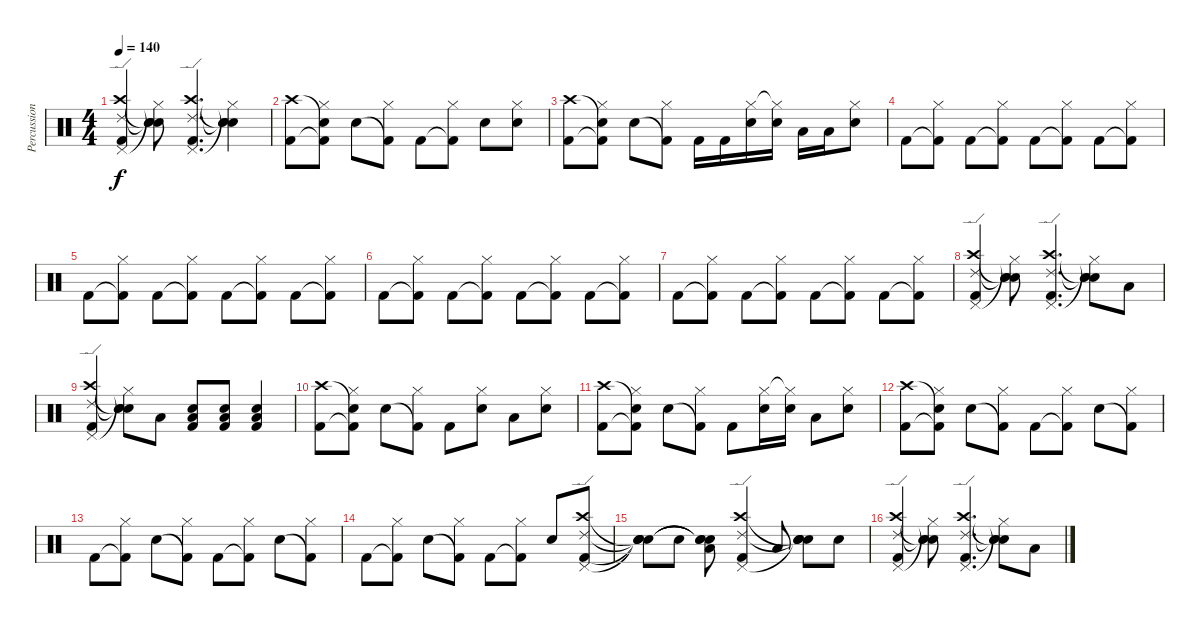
\track ("Percussion" "Percussion") {instrument percussion}
\staff {score}
\articulation defaults
\ts (4 4)
\tempo 140
\clef neutral
\ks c
("Kick (hit) 2" "Crash high (hit)" "Ride (edge) 2" "Pedal Hi-Hat (hit)").4{dy f} ("Snare (hit) 2" "Snare (hit)"{t} "Snare (hit)"{t} "Hi-Hat (closed)"{t}).8 ("Kick (hit) 2" "Crash high (hit)" "Ride (edge) 2" "Pedal Hi-Hat (hit)").4{d} ("Snare (hit) 2" "Snare (hit)"{t} "Snare (hit)"{t} "Hi-Hat (closed)"{t}).4 |
("Kick (hit) 2" "Crash high (hit)").8 ("Kick (hit) 2"{t} "Snare (hit)"{t} "Hi-Hat (closed)").8 "Snare (hit) 2".8 ("Kick (hit) 2"{t} "Hi-Hat (closed)").8 "Kick (hit) 2".8 ("Kick (hit) 2"{t} "Hi-Hat (closed)").8 "Snare (hit) 2".8 ("Snare (hit) 2" "Hi-Hat (closed)").8 |
("Kick (hit) 2" "Crash high (hit)").8 ("Kick (hit) 2"{t} "Snare (hit)"{t} "Hi-Hat (closed)").8 "Snare (hit) 2".8 ("Kick (hit) 2"{t} "Hi-Hat (closed)").8 "Kick (hit) 2".16 "Kick (hit) 2".16 ("Snare (hit) 2" "Hi-Hat (closed)").16 ("Snare (hit) 2" "Hi-Hat (closed)"{t}).16 "Low Tom (hit)".16 "Low Tom (hit)".16 ("Snare (hit) 2" "Hi-Hat (closed)").8 |
"Kick (hit) 2".8 ("Kick (hit) 2"{t} "Hi-Hat (closed)").8 "Kick (hit) 2".8 ("Kick (hit) 2"{t} "Hi-Hat (closed)").8 "Kick (hit) 2".8 ("Kick (hit) 2"{t} "Hi-Hat (closed)").8 "Kick (hit) 2".8 ("Kick (hit) 2"{t} "Hi-Hat (closed)").8 |
"Kick (hit) 2".8 ("Kick (hit) 2"{t} "Hi-Hat (closed)").8 "Kick (hit) 2".8 ("Kick (hit) 2"{t} "Hi-Hat (closed)").8 "Kick (hit) 2".8 ("Kick (hit) 2"{t} "Hi-Hat (closed)").8 "Kick (hit) 2".8 ("Kick (hit) 2"{t} "Hi-Hat (closed)").8 |
"Kick (hit) 2".8 ("Kick (hit) 2"{t} "Hi-Hat (closed)").8 "Kick (hit) 2".8 ("Kick (hit) 2"{t} "Hi-Hat (closed)").8 "Kick (hit) 2".8 ("Kick (hit) 2"{t} "Hi-Hat (closed)").8 "Kick (hit) 2".8 ("Kick (hit) 2"{t} "Hi-Hat (closed)").8 |
"Kick (hit) 2".8 ("Kick (hit) 2"{t} "Hi-Hat (closed)").8 "Kick (hit) 2".8 ("Kick (hit) 2"{t} "Hi-Hat (closed)").8 "Kick (hit) 2".8 ("Kick (hit) 2"{t} "Hi-Hat (closed)").8 "Kick (hit) 2".8 ("Kick (hit) 2"{t} "Hi-Hat (closed)").8 |
("Kick (hit) 2" "Crash high (hit)" "Ride (edge) 2" "Pedal Hi-Hat (hit)").4 ("Snare (hit) 2" "Snare (hit)"{t} "Snare (hit)"{t} "Hi-Hat (closed)"{t}).8 ("Kick (hit) 2" "Crash high (hit)" "Ride (edge) 2" "Pedal Hi-Hat (hit)").4{d} ("Snare (hit) 2" "Snare (hit)"{t} "Snare (hit)"{t} "Hi-Hat (closed)"{t}).8 "Low Tom (hit)".8 |
("Kick (hit) 2" "Crash high (hit)" "Ride (edge) 2" "Pedal Hi-Hat (hit)").4 ("Snare (hit) 2" "Snare (hit)"{t} "Snare (hit)"{t} "Hi-Hat (closed)"{t}).8 "Low Tom (hit)".8 ("Low Tom (hit)" "Snare (hit) 2" "Kick (hit) 2").8 ("Low Tom (hit)" "Snare (hit) 2" "Kick (hit) 2").8 ("Low Tom (hit)" "Snare (hit) 2" "Kick (hit) 2").4 |
("Kick (hit) 2" "Crash high (hit)").8 ("Kick (hit) 2"{t} "Snare (hit)"{t} "Hi-Hat (closed)").8 "Snare (hit) 2".8 ("Kick (hit) 2"{t} "Hi-Hat (closed)").8 "Kick (hit) 2".8 ("Snare (hit) 2" "Hi-Hat (closed)").8 "Low Tom (hit)".8 ("Snare (hit) 2" "Hi-Hat (closed)").8 |
("Kick (hit) 2" "Crash high (hit)").8 ("Kick (hit) 2"{t} "Snare (hit)"{t} "Hi-Hat (closed)").8 "Snare (hit) 2".8 ("Kick (hit) 2"{t} "Hi-Hat (closed)").8 "Kick (hit) 2".8 ("Snare (hit) 2" "Hi-Hat (closed)").16 ("Snare (hit) 2" "Hi-Hat (closed)"{t}).16 "Low Tom (hit)".8 ("Snare (hit) 2" "Hi-Hat (closed)").8 |
("Kick (hit) 2" "Crash high (hit)").8 ("Kick (hit) 2"{t} "Snare (hit)"{t} "Hi-Hat (closed)").8 "Snare (hit) 2".8 ("Kick (hit) 2"{t} "Hi-Hat (closed)").8 "Kick (hit) 2".8 ("Kick (hit) 2"{t} "Hi-Hat (closed)").8 "Snare (hit) 2".8 ("Kick (hit) 2"{t} "Hi-Hat (closed)").8 |
"Kick (hit) 2".8 ("Kick (hit) 2"{t} "Hi-Hat (closed)").8 "Snare (hit) 2".8 ("Kick (hit) 2"{t} "Hi-Hat (closed)").8 "Kick (hit) 2".8 ("Kick (hit) 2"{t} "Hi-Hat (closed)").8 "Snare (hit) 2".8 ("Kick (hit) 2"{t} "Hi-Hat (closed)").8 |
"Kick (hit) 2".8 ("Kick (hit) 2"{t} "Hi-Hat (closed)").8 "Snare (hit) 2".8 ("Kick (hit) 2"{t} "Hi-Hat (closed)").8 "Kick (hit) 2".8 ("Kick (hit) 2"{t} "Hi-Hat (closed)").8 "Snare (hit) 2".8 ("Kick (hit) 2" "Crash high (hit)" "Ride (edge) 2" "Pedal Hi-Hat (hit)").8 |
("Snare (hit) 2"{t} "Snare (hit)"{t} "Snare (hit)"{t} "Snare (hit)"{t}).8 "Snare (hit) 2".8 ("Low Tom (hit)" "Snare (hit)"{t} "Snare (hit)"{t} "Snare (hit)"{t}).8 ("Kick (hit) 2" "Crash high (hit)" "Ride (edge) 2" "Pedal Hi-Hat (hit)").4 "Low Tom (hit)".8 ("Snare (hit) 2" "Snare (hit)"{t} "Snare (hit)"{t} "Snare (hit)"{t}).8 "Snare (hit) 2".8 |
("Kick (hit) 2" "Crash high (hit)" "Ride (edge) 2" "Pedal Hi-Hat (hit)").4 ("Snare (hit) 2" "Snare (hit)"{t} "Snare (hit)"{t} "Hi-Hat (closed)"{t}).8 ("Kick (hit) 2" "Crash high (hit)" "Ride (edge) 2" "Pedal Hi-Hat (hit)").4{d} ("Snare (hit) 2" "Snare (hit)"{t} "Snare (hit)"{t} "Hi-Hat (closed)"{t}).8 "Low Tom (hit)".8
